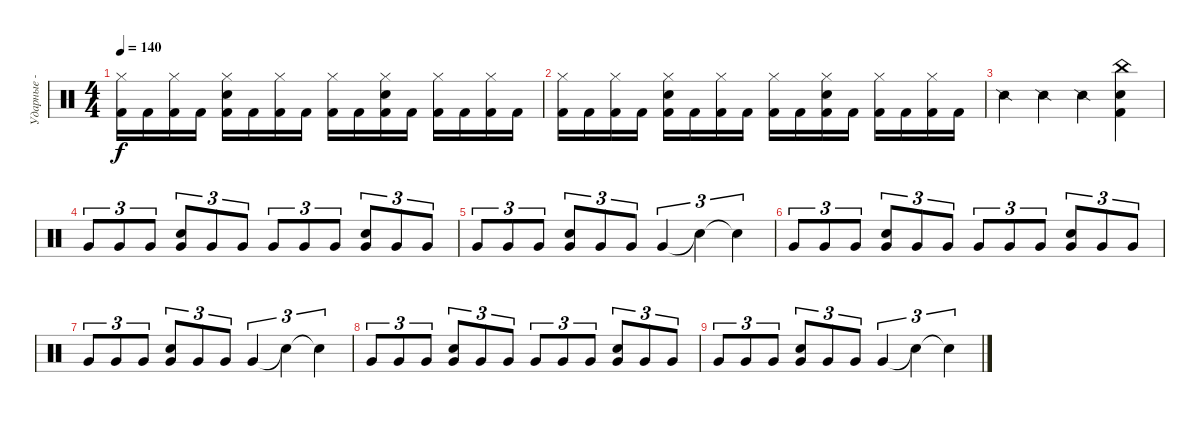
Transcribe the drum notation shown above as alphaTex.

\track ("Ударные - Ваня" "Ударные - ") {instrument percussion}
\staff {score}
\articulation defaults
\ts (4 4)
\tempo 140
\clef neutral
\ks c
("Hi-Hat (closed)" "Kick (hit) 2").16{dy f} "Kick (hit) 2".16 ("Hi-Hat (closed)" "Kick (hit) 2").16 "Kick (hit) 2".16 ("Snare (hit) 2" "Hi-Hat (closed)" "Kick (hit) 2").16 "Kick (hit) 2".16 ("Hi-Hat (closed)" "Kick (hit) 2").16 "Kick (hit) 2".16 ("Hi-Hat (closed)" "Kick (hit) 2").16 "Kick (hit) 2".16 ("Snare (hit) 2" "Hi-Hat (closed)" "Kick (hit) 2").16 "Kick (hit) 2".16 ("Hi-Hat (closed)" "Kick (hit) 2").16 "Kick (hit) 2".16 ("Hi-Hat (closed)" "Kick (hit) 2").16 "Kick (hit) 2".16 |
("Hi-Hat (closed)" "Kick (hit) 2").16 "Kick (hit) 2".16 ("Hi-Hat (closed)" "Kick (hit) 2").16 "Kick (hit) 2".16 ("Snare (hit) 2" "Hi-Hat (closed)" "Kick (hit) 2").16 "Kick (hit) 2".16 ("Hi-Hat (closed)" "Kick (hit) 2").16 "Kick (hit) 2".16 ("Hi-Hat (closed)" "Kick (hit) 2").16 "Kick (hit) 2".16 ("Snare (hit) 2" "Hi-Hat (closed)" "Kick (hit) 2").16 "Kick (hit) 2".16 ("Hi-Hat (closed)" "Kick (hit) 2").16 "Kick (hit) 2".16 ("Hi-Hat (closed)" "Kick (hit) 2").16 "Kick (hit) 2".16 |
"Snare (side stick) 2".4 "Snare (side stick) 2".4 "Snare (side stick) 2".4 ("China (hit)" "Snare (hit) 2" "Kick (hit) 2").4 |
"Very Low Tom (hit)".8{tu (3 2)} "Very Low Tom (hit)".8{tu (3 2)} "Very Low Tom (hit)".8{tu (3 2)} ("Very Low Tom (hit)" "Snare (hit) 2").8{tu (3 2)} "Very Low Tom (hit)".8{tu (3 2)} "Very Low Tom (hit)".8{tu (3 2)} "Very Low Tom (hit)".8{tu (3 2)} "Very Low Tom (hit)".8{tu (3 2)} "Very Low Tom (hit)".8{tu (3 2)} ("Very Low Tom (hit)" "Snare (hit) 2").8{tu (3 2)} "Very Low Tom (hit)".8{tu (3 2)} "Very Low Tom (hit)".8{tu (3 2)} |
"Very Low Tom (hit)".8{tu (3 2)} "Very Low Tom (hit)".8{tu (3 2)} "Very Low Tom (hit)".8{tu (3 2)} ("Very Low Tom (hit)" "Snare (hit) 2").8{tu (3 2)} "Very Low Tom (hit)".8{tu (3 2)} "Very Low Tom (hit)".8{tu (3 2)} "Very Low Tom (hit)".4{tu (3 2)} "Snare (hit)"{t}.4{tu (3 2)} "Snare (hit)"{t}.4{tu (3 2)} |
"Very Low Tom (hit)".8{tu (3 2)} "Very Low Tom (hit)".8{tu (3 2)} "Very Low Tom (hit)".8{tu (3 2)} ("Very Low Tom (hit)" "Snare (hit) 2").8{tu (3 2)} "Very Low Tom (hit)".8{tu (3 2)} "Very Low Tom (hit)".8{tu (3 2)} "Very Low Tom (hit)".8{tu (3 2)} "Very Low Tom (hit)".8{tu (3 2)} "Very Low Tom (hit)".8{tu (3 2)} ("Very Low Tom (hit)" "Snare (hit) 2").8{tu (3 2)} "Very Low Tom (hit)".8{tu (3 2)} "Very Low Tom (hit)".8{tu (3 2)} |
"Very Low Tom (hit)".8{tu (3 2)} "Very Low Tom (hit)".8{tu (3 2)} "Very Low Tom (hit)".8{tu (3 2)} ("Very Low Tom (hit)" "Snare (hit) 2").8{tu (3 2)} "Very Low Tom (hit)".8{tu (3 2)} "Very Low Tom (hit)".8{tu (3 2)} "Very Low Tom (hit)".4{tu (3 2)} "Snare (hit)"{t}.4{tu (3 2)} "Snare (hit)"{t}.4{tu (3 2)} |
"Very Low Tom (hit)".8{tu (3 2)} "Very Low Tom (hit)".8{tu (3 2)} "Very Low Tom (hit)".8{tu (3 2)} ("Very Low Tom (hit)" "Snare (hit) 2").8{tu (3 2)} "Very Low Tom (hit)".8{tu (3 2)} "Very Low Tom (hit)".8{tu (3 2)} "Very Low Tom (hit)".8{tu (3 2)} "Very Low Tom (hit)".8{tu (3 2)} "Very Low Tom (hit)".8{tu (3 2)} ("Very Low Tom (hit)" "Snare (hit) 2").8{tu (3 2)} "Very Low Tom (hit)".8{tu (3 2)} "Very Low Tom (hit)".8{tu (3 2)} |
"Very Low Tom (hit)".8{tu (3 2)} "Very Low Tom (hit)".8{tu (3 2)} "Very Low Tom (hit)".8{tu (3 2)} ("Very Low Tom (hit)" "Snare (hit) 2").8{tu (3 2)} "Very Low Tom (hit)".8{tu (3 2)} "Very Low Tom (hit)".8{tu (3 2)} "Very Low Tom (hit)".4{tu (3 2)} "Snare (hit)"{t}.4{tu (3 2)} "Snare (hit)"{t}.4{tu (3 2)}
